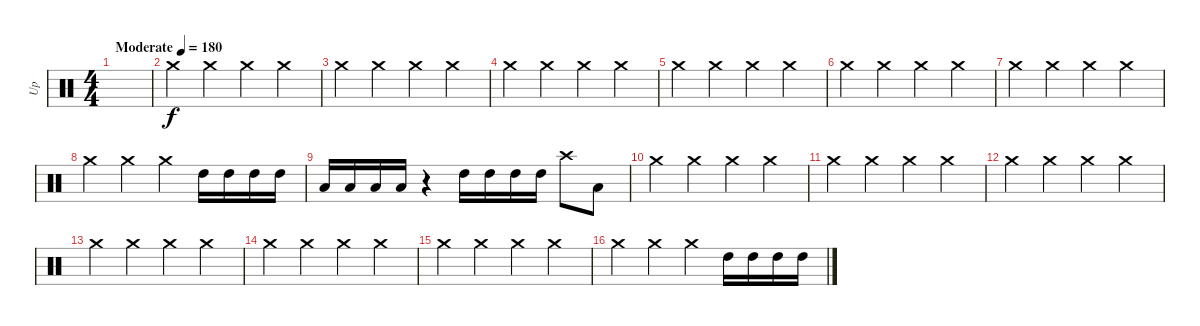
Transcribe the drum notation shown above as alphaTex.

\track ("Up" "Up") {instrument percussion}
\staff {score}
\articulation defaults
\ts (4 4)
\tempo (180 "Moderate")
\clef neutral
\ks c
|
"Crash medium (hit)".4 "Crash medium (hit)".4 "Crash medium (hit)".4 "Crash medium (hit)".4 |
"Crash medium (hit)".4 "Crash medium (hit)".4 "Crash medium (hit)".4 "Crash medium (hit)".4 |
"Crash medium (hit)".4 "Crash medium (hit)".4 "Crash medium (hit)".4 "Crash medium (hit)".4 |
"Crash medium (hit)".4 "Crash medium (hit)".4 "Crash medium (hit)".4 "Crash medium (hit)".4 |
"Crash medium (hit)".4 "Crash medium (hit)".4 "Crash medium (hit)".4 "Crash medium (hit)".4 |
"Crash medium (hit)".4 "Crash medium (hit)".4 "Crash medium (hit)".4 "Crash medium (hit)".4 |
"Crash medium (hit)".4 "Crash medium (hit)".4 "Crash medium (hit)".4 "High Tom (hit)".16 "High Tom (hit)".16 "High Tom (hit)".16 "High Tom (hit)".16 |
"Low Tom (hit)".16 "Low Tom (hit)".16 "Low Tom (hit)".16 "Low Tom (hit)".16 r.4 "High Tom (hit)".16 "High Tom (hit)".16 "High Tom (hit)".16 "High Tom (hit)".16 "Crash high (hit)".8 "Low Tom (hit)".8 |
"Crash medium (hit)".4 "Crash medium (hit)".4 "Crash medium (hit)".4 "Crash medium (hit)".4 |
"Crash medium (hit)".4 "Crash medium (hit)".4 "Crash medium (hit)".4 "Crash medium (hit)".4 |
"Crash medium (hit)".4 "Crash medium (hit)".4 "Crash medium (hit)".4 "Crash medium (hit)".4 |
"Crash medium (hit)".4 "Crash medium (hit)".4 "Crash medium (hit)".4 "Crash medium (hit)".4 |
"Crash medium (hit)".4 "Crash medium (hit)".4 "Crash medium (hit)".4 "Crash medium (hit)".4 |
"Crash medium (hit)".4 "Crash medium (hit)".4 "Crash medium (hit)".4 "Crash medium (hit)".4 |
"Crash medium (hit)".4 "Crash medium (hit)".4 "Crash medium (hit)".4 "High Tom (hit)".16 "High Tom (hit)".16 "High Tom (hit)".16 "High Tom (hit)".16
